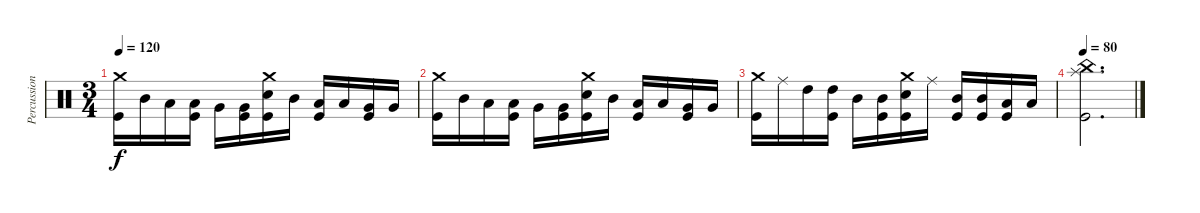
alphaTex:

\track ("Percussion" "Percussion") {instrument percussion}
\staff {score}
\articulation defaults
\ts (3 4)
\tempo 120
\clef neutral
\ks c
("Crash medium (hit)" "Kick (hit)").16{dy f} "Mid Tom (hit)".16 "Low Tom (hit)".16 ("Low Tom (hit)" "Kick (hit)").16 "Very Low Tom (hit)".16 ("Very Low Tom (hit)" "Kick (hit)").16 ("Crash medium (hit)" "Electric Snare (hit)" "Kick (hit)").16 "Mid Tom (hit)".16 ("Low Tom (hit)" "Kick (hit)").16 "Low Tom (hit)".16 ("Very Low Tom (hit)" "Kick (hit)").16 "Very Low Tom (hit)".16 |
("Crash medium (hit)" "Kick (hit)").16 "Mid Tom (hit)".16 "Low Tom (hit)".16 ("Low Tom (hit)" "Kick (hit)").16 "Very Low Tom (hit)".16 ("Very Low Tom (hit)" "Kick (hit)").16 ("Crash medium (hit)" "Electric Snare (hit)" "Kick (hit)").16 "Mid Tom (hit)".16 ("Low Tom (hit)" "Kick (hit)").16 "Low Tom (hit)".16 ("Very Low Tom (hit)" "Kick (hit)").16 "Very Low Tom (hit)".16 |
("Crash medium (hit)" "Kick (hit)").16 "Ride (middle)".16 "High Tom (hit)".16 ("High Tom (hit)" "Kick (hit)").16 "Mid Tom (hit)".16 ("Mid Tom (hit)" "Kick (hit)").16 ("Crash medium (hit)" "Electric Snare (hit)" "Kick (hit)").16 "Ride (middle)".16 ("Mid Tom (hit)" "Kick (hit)").16 ("Mid Tom (hit)" "Kick (hit)").16 ("Low Tom (hit)" "Kick (hit)").16 "Low Tom (hit)".16 |
\tempo 80
("Splash (hit)" "China (hit)" "Kick (hit)").2{d}
